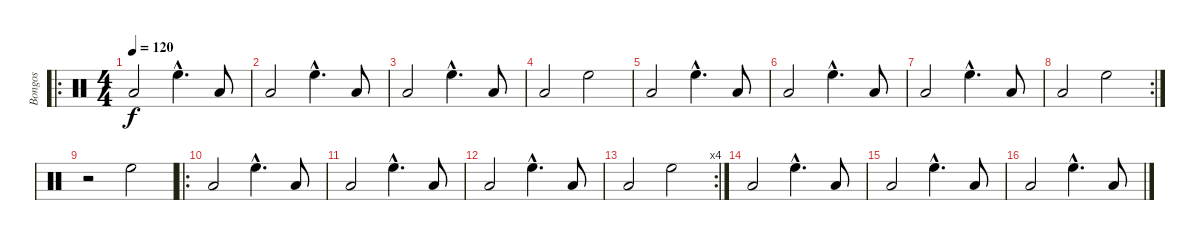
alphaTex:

\track ("Bongos" "Bongos") {instrument percussion}
\staff {score}
\articulation defaults
\ro
\ts (4 4)
\tempo 120
\clef neutral
\ks c "Low Floor Tom (hit)".2{dy f} "High Floor Tom (hit)"{hac}.4{d} "Low Floor Tom (hit)".8
|
"Low Floor Tom (hit)".2 "High Floor Tom (hit)"{hac}.4{d} "Low Floor Tom (hit)".8 |
"Low Floor Tom (hit)".2 "High Floor Tom (hit)"{hac}.4{d} "Low Floor Tom (hit)".8 |
"Low Floor Tom (hit)".2 "High Floor Tom (hit)".2 |
"Low Floor Tom (hit)".2 "High Floor Tom (hit)"{hac}.4{d} "Low Floor Tom (hit)".8 |
"Low Floor Tom (hit)".2 "High Floor Tom (hit)"{hac}.4{d} "Low Floor Tom (hit)".8 |
"Low Floor Tom (hit)".2 "High Floor Tom (hit)"{hac}.4{d} "Low Floor Tom (hit)".8 |
\rc 2 "Low Floor Tom (hit)".2 "High Floor Tom (hit)".2
|
r.2 "High Floor Tom (hit)".2 |
\ro "Low Floor Tom (hit)".2 "High Floor Tom (hit)"{hac}.4{d} "Low Floor Tom (hit)".8
|
"Low Floor Tom (hit)".2 "High Floor Tom (hit)"{hac}.4{d} "Low Floor Tom (hit)".8 |
"Low Floor Tom (hit)".2 "High Floor Tom (hit)"{hac}.4{d} "Low Floor Tom (hit)".8 |
\rc 4 "Low Floor Tom (hit)".2 "High Floor Tom (hit)".2
|
"Low Floor Tom (hit)".2 "High Floor Tom (hit)"{hac}.4{d} "Low Floor Tom (hit)".8 |
"Low Floor Tom (hit)".2 "High Floor Tom (hit)"{hac}.4{d} "Low Floor Tom (hit)".8 |
"Low Floor Tom (hit)".2 "High Floor Tom (hit)"{hac}.4{d} "Low Floor Tom (hit)".8
